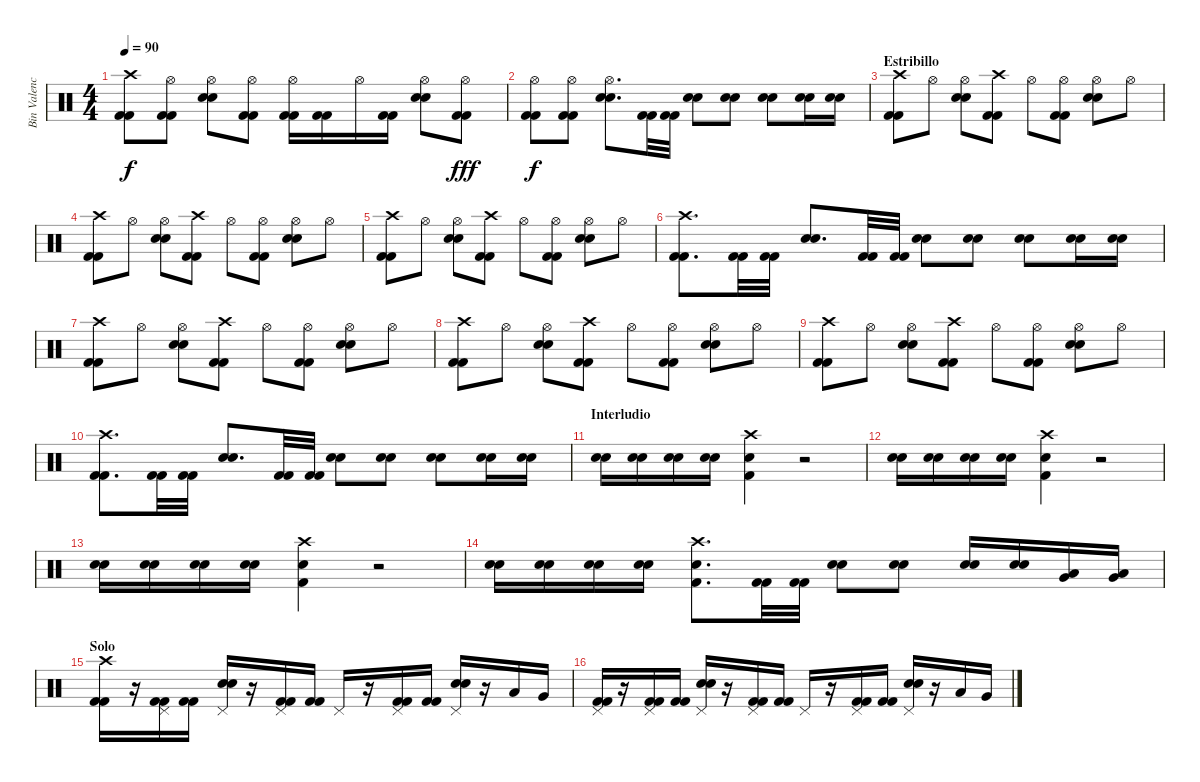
\track ("Bin Valencia" "Bin Valenc") {instrument percussion}
\staff {score}
\articulation defaults
\ts (4 4)
\tempo 90
\clef neutral
\ks c
("Crash high (hit)" "Kick (hit) 2" "Kick (hit) 2").8{dy f} ("Hi-Hat (open)" "Kick (hit) 2" "Kick (hit) 2").8 ("Hi-Hat (open)" "Snare (hit) 2" "Snare (hit) 2").8 ("Hi-Hat (open)" "Kick (hit) 2" "Kick (hit) 2").8 ("Hi-Hat (open)" "Kick (hit) 2" "Kick (hit) 2").16 ("Kick (hit) 2" "Kick (hit) 2").16 "Hi-Hat (open)".16 ("Kick (hit) 2" "Kick (hit) 2").16 ("Hi-Hat (open)" "Snare (hit) 2" "Snare (hit) 2").8 ("Hi-Hat (open)" "Kick (hit) 2" "Kick (hit) 2").8{dy fff} |
("Hi-Hat (open)" "Kick (hit) 2" "Kick (hit) 2").8{dy f} ("Hi-Hat (open)" "Kick (hit) 2" "Kick (hit) 2").8 ("Hi-Hat (open)" "Snare (hit) 2" "Snare (hit) 2").8{d} ("Kick (hit) 2" "Kick (hit) 2").32 ("Kick (hit) 2" "Kick (hit) 2").32 ("Snare (hit) 2" "Snare (hit) 2").8 ("Snare (hit) 2" "Snare (hit) 2").8 ("Snare (hit) 2" "Snare (hit) 2").8 ("Snare (hit) 2" "Snare (hit) 2").16 ("Snare (hit) 2" "Snare (hit) 2").16 |
\section ("" "Estribillo")
("Crash high (hit)" "Kick (hit) 2" "Kick (hit) 2").8 "Hi-Hat (open)".8 ("Hi-Hat (open)" "Snare (hit) 2" "Snare (hit) 2").8 ("Crash high (hit)" "Kick (hit) 2" "Kick (hit) 2").8 "Hi-Hat (open)".8 ("Hi-Hat (open)" "Kick (hit) 2" "Kick (hit) 2").8 ("Hi-Hat (open)" "Snare (hit) 2" "Snare (hit) 2").8 "Hi-Hat (open)".8 |
("Crash high (hit)" "Kick (hit) 2" "Kick (hit) 2").8 "Hi-Hat (open)".8 ("Hi-Hat (open)" "Snare (hit) 2" "Snare (hit) 2").8 ("Crash high (hit)" "Kick (hit) 2" "Kick (hit) 2").8 "Hi-Hat (open)".8 ("Hi-Hat (open)" "Kick (hit) 2" "Kick (hit) 2").8 ("Hi-Hat (open)" "Snare (hit) 2" "Snare (hit) 2").8 "Hi-Hat (open)".8 |
("Crash high (hit)" "Kick (hit) 2" "Kick (hit) 2").8 "Hi-Hat (open)".8 ("Hi-Hat (open)" "Snare (hit) 2" "Snare (hit) 2").8 ("Crash high (hit)" "Kick (hit) 2" "Kick (hit) 2").8 "Hi-Hat (open)".8 ("Hi-Hat (open)" "Kick (hit) 2" "Kick (hit) 2").8 ("Hi-Hat (open)" "Snare (hit) 2" "Snare (hit) 2").8 "Hi-Hat (open)".8 |
("Crash high (hit)" "Kick (hit) 2" "Kick (hit) 2").8{d} ("Kick (hit) 2" "Kick (hit) 2").32 ("Kick (hit) 2" "Kick (hit) 2").32 ("Snare (hit) 2" "Snare (hit) 2").8{d} ("Kick (hit) 2" "Kick (hit) 2").32 ("Kick (hit) 2" "Kick (hit) 2").32 ("Snare (hit) 2" "Snare (hit) 2").8 ("Snare (hit) 2" "Snare (hit) 2").8 ("Snare (hit) 2" "Snare (hit) 2").8 ("Snare (hit) 2" "Snare (hit) 2").16 ("Snare (hit) 2" "Snare (hit) 2").16 |
("Crash high (hit)" "Kick (hit) 2" "Kick (hit) 2").8 "Hi-Hat (open)".8 ("Hi-Hat (open)" "Snare (hit) 2" "Snare (hit) 2").8 ("Crash high (hit)" "Kick (hit) 2" "Kick (hit) 2").8 "Hi-Hat (open)".8 ("Hi-Hat (open)" "Kick (hit) 2" "Kick (hit) 2").8 ("Hi-Hat (open)" "Snare (hit) 2" "Snare (hit) 2").8 "Hi-Hat (open)".8 |
("Crash high (hit)" "Kick (hit) 2" "Kick (hit) 2").8 "Hi-Hat (open)".8 ("Hi-Hat (open)" "Snare (hit) 2" "Snare (hit) 2").8 ("Crash high (hit)" "Kick (hit) 2" "Kick (hit) 2").8 "Hi-Hat (open)".8 ("Hi-Hat (open)" "Kick (hit) 2" "Kick (hit) 2").8 ("Hi-Hat (open)" "Snare (hit) 2" "Snare (hit) 2").8 "Hi-Hat (open)".8 |
("Crash high (hit)" "Kick (hit) 2" "Kick (hit) 2").8 "Hi-Hat (open)".8 ("Hi-Hat (open)" "Snare (hit) 2" "Snare (hit) 2").8 ("Crash high (hit)" "Kick (hit) 2" "Kick (hit) 2").8 "Hi-Hat (open)".8 ("Hi-Hat (open)" "Kick (hit) 2" "Kick (hit) 2").8 ("Hi-Hat (open)" "Snare (hit) 2" "Snare (hit) 2").8 "Hi-Hat (open)".8 |
("Crash high (hit)" "Kick (hit) 2" "Kick (hit) 2").8{d} ("Kick (hit) 2" "Kick (hit) 2").32 ("Kick (hit) 2" "Kick (hit) 2").32 ("Snare (hit) 2" "Snare (hit) 2").8{d} ("Kick (hit) 2" "Kick (hit) 2").32 ("Kick (hit) 2" "Kick (hit) 2").32 ("Snare (hit) 2" "Snare (hit) 2").8 ("Snare (hit) 2" "Snare (hit) 2").8 ("Snare (hit) 2" "Snare (hit) 2").8 ("Snare (hit) 2" "Snare (hit) 2").16 ("Snare (hit) 2" "Snare (hit) 2").16 |
\section ("" "Interludio")
("Snare (hit) 2" "Snare (hit) 2").16 ("Snare (hit) 2" "Snare (hit) 2").16 ("Snare (hit) 2" "Snare (hit) 2").16 ("Snare (hit) 2" "Snare (hit) 2").16 ("Crash high (hit)" "Snare (hit) 2" "Kick (hit) 2").4 r.2 |
("Snare (hit) 2" "Snare (hit) 2").16 ("Snare (hit) 2" "Snare (hit) 2").16 ("Snare (hit) 2" "Snare (hit) 2").16 ("Snare (hit) 2" "Snare (hit) 2").16 ("Crash high (hit)" "Snare (hit) 2" "Kick (hit) 2").4 r.2 |
("Snare (hit) 2" "Snare (hit) 2").16 ("Snare (hit) 2" "Snare (hit) 2").16 ("Snare (hit) 2" "Snare (hit) 2").16 ("Snare (hit) 2" "Snare (hit) 2").16 ("Crash high (hit)" "Snare (hit) 2" "Kick (hit) 2").4 r.2 |
("Snare (hit) 2" "Snare (hit) 2").16 ("Snare (hit) 2" "Snare (hit) 2").16 ("Snare (hit) 2" "Snare (hit) 2").16 ("Snare (hit) 2" "Snare (hit) 2").16 ("Crash high (hit)" "Snare (hit) 2" "Kick (hit) 2").8{d} ("Kick (hit) 2" "Kick (hit) 2").32 ("Kick (hit) 2" "Kick (hit) 2").32 ("Snare (hit) 2" "Snare (hit) 2").8 ("Snare (hit) 2" "Snare (hit) 2").8 ("Snare (hit) 2" "Snare (hit) 2").16 ("Snare (hit) 2" "Snare (hit) 2").16 ("Low Floor Tom (hit)" "Very Low Tom (hit)").16 ("Low Floor Tom (hit)" "Very Low Tom (hit)").16 |
\section ("" "Solo")
("Crash high (hit)" "Kick (hit) 2" "Kick (hit) 2").16 r.16 ("Pedal Hi-Hat (hit)" "Kick (hit) 2" "Kick (hit) 2").16 ("Kick (hit) 2" "Kick (hit) 2").16 ("Pedal Hi-Hat (hit)" "Electric Snare (hit)" "Electric Snare (hit)").16 r.16 ("Pedal Hi-Hat (hit)" "Kick (hit) 2" "Kick (hit) 2").16 ("Kick (hit) 2" "Kick (hit) 2").16 "Pedal Hi-Hat (hit)".16 r.16 ("Pedal Hi-Hat (hit)" "Kick (hit) 2" "Kick (hit) 2").16 ("Kick (hit) 2" "Kick (hit) 2").16 ("Pedal Hi-Hat (hit)" "Electric Snare (hit)" "Electric Snare (hit)").16 r.16 "Low Tom (hit)".16 "Very Low Tom (hit)".16 |
("Pedal Hi-Hat (hit)" "Kick (hit) 2" "Kick (hit) 2").16 r.16 ("Pedal Hi-Hat (hit)" "Kick (hit) 2" "Kick (hit) 2").16 ("Kick (hit) 2" "Kick (hit) 2").16 ("Pedal Hi-Hat (hit)" "Electric Snare (hit)" "Electric Snare (hit)").16 r.16 ("Pedal Hi-Hat (hit)" "Kick (hit) 2" "Kick (hit) 2").16 ("Kick (hit) 2" "Kick (hit) 2").16 "Pedal Hi-Hat (hit)".16 r.16 ("Pedal Hi-Hat (hit)" "Kick (hit) 2" "Kick (hit) 2").16 ("Kick (hit) 2" "Kick (hit) 2").16 ("Pedal Hi-Hat (hit)" "Electric Snare (hit)" "Electric Snare (hit)").16 r.16 "Low Tom (hit)".16 "Very Low Tom (hit)".16
